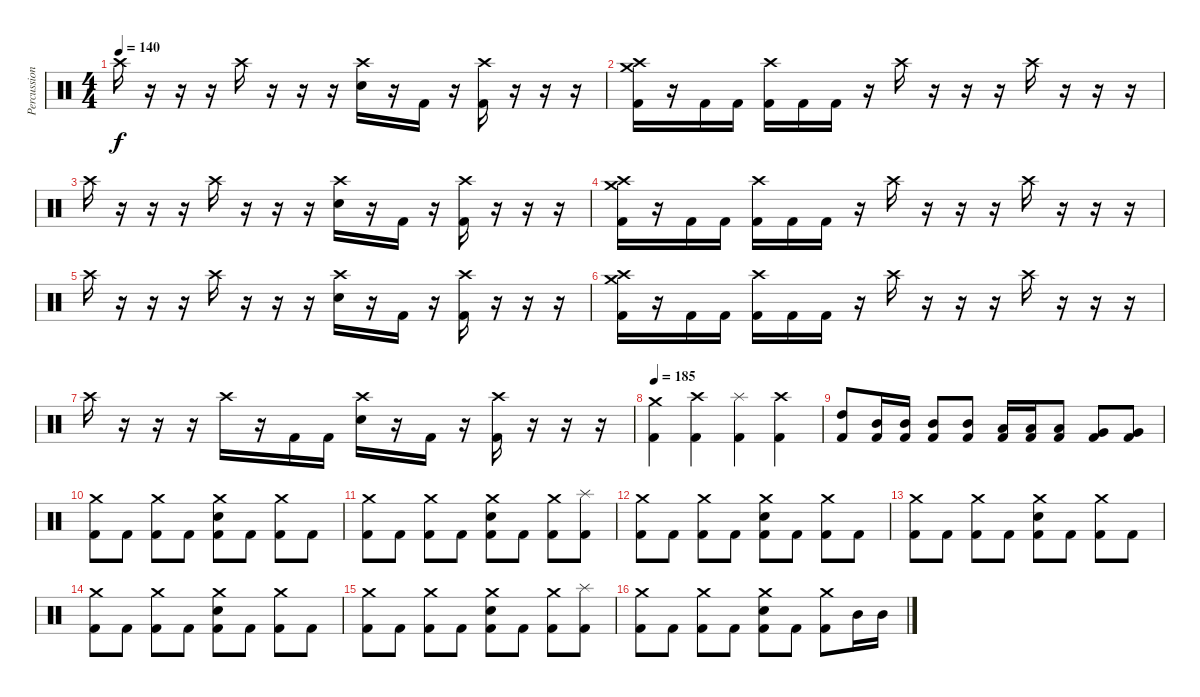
\track ("Percussion" "Percussion") {instrument percussion}
\staff {score}
\articulation defaults
\ts (4 4)
\tempo 140
\clef neutral
\ks c "Crash high (hit)".16{dy f}
r.16 r.16 r.16 "Crash high (hit)".16 r.16 r.16 r.16 ("Crash high (hit)" "Snare (hit) 2").16 r.16 "Kick (hit) 2".16 r.16 ("Crash high (hit)" "Kick (hit) 2").16 r.16 r.16 r.16 |
("Crash high (hit)" "Crash medium (hit)" "Kick (hit) 2").16 r.16 "Kick (hit) 2".16 "Kick (hit) 2".16 ("Crash high (hit)" "Kick (hit) 2").16 "Kick (hit) 2".16 "Kick (hit) 2".16 r.16 "Crash high (hit)".16 r.16 r.16 r.16 "Crash high (hit)".16 r.16 r.16 r.16 |
"Crash high (hit)".16 r.16 r.16 r.16 "Crash high (hit)".16 r.16 r.16 r.16 ("Crash high (hit)" "Snare (hit) 2").16 r.16 "Kick (hit) 2".16 r.16 ("Crash high (hit)" "Kick (hit) 2").16 r.16 r.16 r.16 |
("Crash high (hit)" "Crash medium (hit)" "Kick (hit) 2").16 r.16 "Kick (hit) 2".16 "Kick (hit) 2".16 ("Crash high (hit)" "Kick (hit) 2").16 "Kick (hit) 2".16 "Kick (hit) 2".16 r.16 "Crash high (hit)".16 r.16 r.16 r.16 "Crash high (hit)".16 r.16 r.16 r.16 |
"Crash high (hit)".16 r.16 r.16 r.16 "Crash high (hit)".16 r.16 r.16 r.16 ("Crash high (hit)" "Snare (hit) 2").16 r.16 "Kick (hit) 2".16 r.16 ("Crash high (hit)" "Kick (hit) 2").16 r.16 r.16 r.16 |
("Crash high (hit)" "Crash medium (hit)" "Kick (hit) 2").16 r.16 "Kick (hit) 2".16 "Kick (hit) 2".16 ("Crash high (hit)" "Kick (hit) 2").16 "Kick (hit) 2".16 "Kick (hit) 2".16 r.16 "Crash high (hit)".16 r.16 r.16 r.16 "Crash high (hit)".16 r.16 r.16 r.16 |
"Crash high (hit)".16 r.16 r.16 r.16 "Crash high (hit)".16 r.16 "Kick (hit) 2".16 "Kick (hit) 2".16 ("Crash high (hit)" "Snare (hit) 2").16 r.16 "Kick (hit) 2".16 r.16 ("Crash high (hit)" "Kick (hit) 2").16 r.16 r.16 r.16 |
\tempo 185
("Crash medium (hit)" "Kick (hit) 2").4 ("Crash high (hit)" "Kick (hit) 2").4 ("Splash (hit)" "Kick (hit) 2").4 ("Crash high (hit)" "Kick (hit) 2").4 |
("High Tom (hit)" "Kick (hit) 2").8 ("Mid Tom (hit)" "Kick (hit) 2").16 ("Mid Tom (hit)" "Kick (hit) 2").16 ("Mid Tom (hit)" "Kick (hit) 2").8 ("Mid Tom (hit)" "Kick (hit) 2").8 ("Low Tom (hit)" "Kick (hit) 2").16 ("Low Tom (hit)" "Kick (hit) 2").16 ("Low Tom (hit)" "Kick (hit) 2").8 ("Very Low Tom (hit)" "Kick (hit) 2").8 ("Very Low Tom (hit)" "Kick (hit) 2").8 |
("Crash medium (hit)" "Kick (hit) 2").8 "Kick (hit) 2".8 ("Crash medium (hit)" "Kick (hit) 2").8 "Kick (hit) 2".8 ("Crash medium (hit)" "Snare (hit) 2" "Kick (hit) 2").8 "Kick (hit) 2".8 ("Crash medium (hit)" "Kick (hit) 2").8 "Kick (hit) 2".8 |
("Crash medium (hit)" "Kick (hit) 2").8 "Kick (hit) 2".8 ("Crash medium (hit)" "Kick (hit) 2").8 "Kick (hit) 2".8 ("Crash medium (hit)" "Snare (hit) 2" "Kick (hit) 2").8 "Kick (hit) 2".8 ("Crash medium (hit)" "Kick (hit) 2").8 ("Splash (hit)" "Kick (hit) 2").8 |
("Crash medium (hit)" "Kick (hit) 2").8 "Kick (hit) 2".8 ("Crash medium (hit)" "Kick (hit) 2").8 "Kick (hit) 2".8 ("Crash medium (hit)" "Snare (hit) 2" "Kick (hit) 2").8 "Kick (hit) 2".8 ("Crash medium (hit)" "Kick (hit) 2").8 "Kick (hit) 2".8 |
("Crash medium (hit)" "Kick (hit) 2").8 "Kick (hit) 2".8 ("Crash medium (hit)" "Kick (hit) 2").8 "Kick (hit) 2".8 ("Crash medium (hit)" "Snare (hit) 2" "Kick (hit) 2").8 "Kick (hit) 2".8 ("Crash medium (hit)" "Kick (hit) 2").8 "Kick (hit) 2".8 |
("Crash medium (hit)" "Kick (hit) 2").8 "Kick (hit) 2".8 ("Crash medium (hit)" "Kick (hit) 2").8 "Kick (hit) 2".8 ("Crash medium (hit)" "Snare (hit) 2" "Kick (hit) 2").8 "Kick (hit) 2".8 ("Crash medium (hit)" "Kick (hit) 2").8 "Kick (hit) 2".8 |
("Crash medium (hit)" "Kick (hit) 2").8 "Kick (hit) 2".8 ("Crash medium (hit)" "Kick (hit) 2").8 "Kick (hit) 2".8 ("Crash medium (hit)" "Snare (hit) 2" "Kick (hit) 2").8 "Kick (hit) 2".8 ("Crash medium (hit)" "Kick (hit) 2").8 ("Splash (hit)" "Kick (hit) 2").8 |
("Crash medium (hit)" "Kick (hit) 2").8 "Kick (hit) 2".8 ("Crash medium (hit)" "Kick (hit) 2").8 "Kick (hit) 2".8 ("Crash medium (hit)" "Snare (hit) 2" "Kick (hit) 2").8 "Kick (hit) 2".8 ("Crash medium (hit)" "Kick (hit) 2").8 "Mid Tom (hit)".16 "Mid Tom (hit)".16
